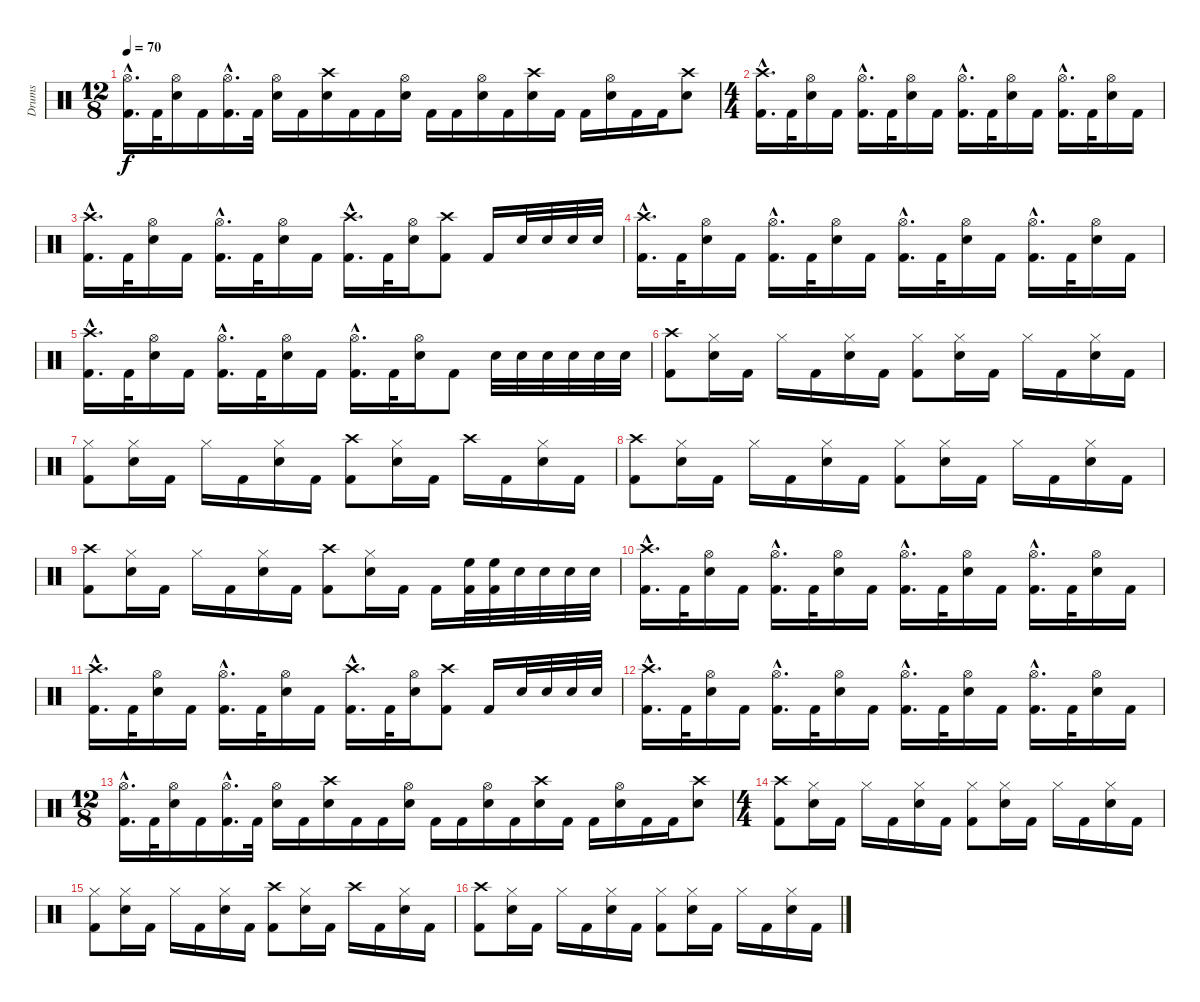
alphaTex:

\track ("Drums" "Drums") {instrument percussion}
\staff {score}
\articulation defaults
\ts (12 8)
\tempo 70
\clef neutral
\ks c
("Hi-Hat (open)"{hac} "Kick (hit) 2"{hac}).16{d dy f} "Kick (hit) 2".32 ("Hi-Hat (open)" "Snare (hit) 2").16 "Kick (hit) 2".16 ("Hi-Hat (open)"{hac} "Kick (hit) 2"{hac}).16{d} "Kick (hit) 2".32 ("Hi-Hat (open)" "Snare (hit) 2").16 "Kick (hit) 2".16 ("Crash high (hit)" "Snare (hit) 2").16 "Kick (hit) 2".16 "Kick (hit) 2".16 ("Hi-Hat (open)" "Snare (hit) 2").16 "Kick (hit) 2".16 "Kick (hit) 2".16 ("Hi-Hat (open)" "Snare (hit) 2").16 "Kick (hit) 2".16 ("Crash high (hit)" "Snare (hit) 2").16 "Kick (hit) 2".16 "Kick (hit) 2".16 ("Hi-Hat (open)" "Snare (hit) 2").16 "Kick (hit) 2".16 "Kick (hit) 2".16 ("Crash high (hit)" "Snare (hit) 2").8 |
\ts (4 4)
("Crash high (hit)"{hac} "Kick (hit) 2"{hac}).16{d} "Kick (hit) 2".32 ("Hi-Hat (open)" "Snare (hit) 2").16 "Kick (hit) 2".16 ("Hi-Hat (open)"{hac} "Kick (hit) 2"{hac}).16{d} "Kick (hit) 2".32 ("Hi-Hat (open)" "Snare (hit) 2").16 "Kick (hit) 2".16 ("Hi-Hat (open)"{hac} "Kick (hit) 2"{hac}).16{d} "Kick (hit) 2".32 ("Hi-Hat (open)" "Snare (hit) 2").16 "Kick (hit) 2".16 ("Hi-Hat (open)"{hac} "Kick (hit) 2"{hac}).16{d} "Kick (hit) 2".32 ("Hi-Hat (open)" "Snare (hit) 2").16 "Kick (hit) 2".16 |
("Crash high (hit)"{hac} "Kick (hit) 2"{hac}).16{d} "Kick (hit) 2".32 ("Hi-Hat (open)" "Snare (hit) 2").16 "Kick (hit) 2".16 ("Hi-Hat (open)"{hac} "Kick (hit) 2"{hac}).16{d} "Kick (hit) 2".32 ("Hi-Hat (open)" "Snare (hit) 2").16 "Kick (hit) 2".16 ("Crash high (hit)"{hac} "Kick (hit) 2"{hac}).16{d} "Kick (hit) 2".32 ("Hi-Hat (open)" "Snare (hit) 2").16 ("Crash high (hit)" "Kick (hit) 2").8 "Kick (hit) 2".16 "Snare (hit) 2".32 "Snare (hit) 2".32 "Snare (hit) 2".32 "Snare (hit) 2".32 |
("Crash high (hit)"{hac} "Kick (hit) 2"{hac}).16{d} "Kick (hit) 2".32 ("Hi-Hat (open)" "Snare (hit) 2").16 "Kick (hit) 2".16 ("Hi-Hat (open)"{hac} "Kick (hit) 2"{hac}).16{d} "Kick (hit) 2".32 ("Hi-Hat (open)" "Snare (hit) 2").16 "Kick (hit) 2".16 ("Hi-Hat (open)"{hac} "Kick (hit) 2"{hac}).16{d} "Kick (hit) 2".32 ("Hi-Hat (open)" "Snare (hit) 2").16 "Kick (hit) 2".16 ("Hi-Hat (open)"{hac} "Kick (hit) 2"{hac}).16{d} "Kick (hit) 2".32 ("Hi-Hat (open)" "Snare (hit) 2").16 "Kick (hit) 2".16 |
("Crash high (hit)"{hac} "Kick (hit) 2"{hac}).16{d} "Kick (hit) 2".32 ("Hi-Hat (open)" "Snare (hit) 2").16 "Kick (hit) 2".16 ("Hi-Hat (open)"{hac} "Kick (hit) 2"{hac}).16{d} "Kick (hit) 2".32 ("Hi-Hat (open)" "Snare (hit) 2").16 "Kick (hit) 2".16 ("Hi-Hat (open)"{hac} "Kick (hit) 2"{hac}).16{d} "Kick (hit) 2".32 ("Hi-Hat (open)" "Snare (hit) 2").16 "Kick (hit) 2".8 "Snare (hit) 2".32 "Snare (hit) 2".32 "Snare (hit) 2".32 "Snare (hit) 2".32 "Snare (hit) 2".32 "Snare (hit) 2".32 |
("Crash high (hit)" "Kick (hit) 2").8 ("Hi-Hat (closed)" "Snare (hit) 2").16 "Kick (hit) 2".16 "Hi-Hat (closed)".16 "Kick (hit) 2".16 ("Hi-Hat (closed)" "Snare (hit) 2").16 "Kick (hit) 2".16 ("Hi-Hat (closed)" "Kick (hit) 2").8 ("Hi-Hat (closed)" "Snare (hit) 2").16 "Kick (hit) 2".16 "Hi-Hat (closed)".16 "Kick (hit) 2".16 ("Hi-Hat (closed)" "Snare (hit) 2").16 "Kick (hit) 2".16 |
("Hi-Hat (closed)" "Kick (hit) 2").8 ("Hi-Hat (closed)" "Snare (hit) 2").16 "Kick (hit) 2".16 "Hi-Hat (closed)".16 "Kick (hit) 2".16 ("Hi-Hat (closed)" "Snare (hit) 2").16 "Kick (hit) 2".16 ("Crash high (hit)" "Kick (hit) 2").8 ("Hi-Hat (closed)" "Snare (hit) 2").16 "Kick (hit) 2".16 "Crash high (hit)".16 "Kick (hit) 2".16 ("Hi-Hat (closed)" "Snare (hit) 2").16 "Kick (hit) 2".16 |
("Crash high (hit)" "Kick (hit) 2").8 ("Hi-Hat (closed)" "Snare (hit) 2").16 "Kick (hit) 2".16 "Hi-Hat (closed)".16 "Kick (hit) 2".16 ("Hi-Hat (closed)" "Snare (hit) 2").16 "Kick (hit) 2".16 ("Hi-Hat (closed)" "Kick (hit) 2").8 ("Hi-Hat (closed)" "Snare (hit) 2").16 "Kick (hit) 2".16 "Hi-Hat (closed)".16 "Kick (hit) 2".16 ("Hi-Hat (closed)" "Snare (hit) 2").16 "Kick (hit) 2".16 |
("Crash high (hit)" "Kick (hit) 2").8 ("Hi-Hat (closed)" "Snare (hit) 2").16 "Kick (hit) 2".16 "Hi-Hat (closed)".16 "Kick (hit) 2".16 ("Hi-Hat (closed)" "Snare (hit) 2").16 "Kick (hit) 2".16 ("Crash high (hit)" "Kick (hit) 2").8 ("Hi-Hat (closed)" "Snare (hit) 2").16 "Kick (hit) 2".16 "Kick (hit) 2".16 ("High Floor Tom (hit)" "Kick (hit) 2").32 ("High Floor Tom (hit)" "Kick (hit) 2").32 "Snare (hit) 2".32 "Snare (hit) 2".32 "Snare (hit) 2".32 "Snare (hit) 2".32 |
("Crash high (hit)"{hac} "Kick (hit) 2"{hac}).16{d} "Kick (hit) 2".32 ("Hi-Hat (open)" "Snare (hit) 2").16 "Kick (hit) 2".16 ("Hi-Hat (open)"{hac} "Kick (hit) 2"{hac}).16{d} "Kick (hit) 2".32 ("Hi-Hat (open)" "Snare (hit) 2").16 "Kick (hit) 2".16 ("Hi-Hat (open)"{hac} "Kick (hit) 2"{hac}).16{d} "Kick (hit) 2".32 ("Hi-Hat (open)" "Snare (hit) 2").16 "Kick (hit) 2".16 ("Hi-Hat (open)"{hac} "Kick (hit) 2"{hac}).16{d} "Kick (hit) 2".32 ("Hi-Hat (open)" "Snare (hit) 2").16 "Kick (hit) 2".16 |
("Crash high (hit)"{hac} "Kick (hit) 2"{hac}).16{d} "Kick (hit) 2".32 ("Hi-Hat (open)" "Snare (hit) 2").16 "Kick (hit) 2".16 ("Hi-Hat (open)"{hac} "Kick (hit) 2"{hac}).16{d} "Kick (hit) 2".32 ("Hi-Hat (open)" "Snare (hit) 2").16 "Kick (hit) 2".16 ("Crash high (hit)"{hac} "Kick (hit) 2"{hac}).16{d} "Kick (hit) 2".32 ("Hi-Hat (open)" "Snare (hit) 2").16 ("Crash high (hit)" "Kick (hit) 2").8 "Kick (hit) 2".16 "Snare (hit) 2".32 "Snare (hit) 2".32 "Snare (hit) 2".32 "Snare (hit) 2".32 |
("Crash high (hit)"{hac} "Kick (hit) 2"{hac}).16{d} "Kick (hit) 2".32 ("Hi-Hat (open)" "Snare (hit) 2").16 "Kick (hit) 2".16 ("Hi-Hat (open)"{hac} "Kick (hit) 2"{hac}).16{d} "Kick (hit) 2".32 ("Hi-Hat (open)" "Snare (hit) 2").16 "Kick (hit) 2".16 ("Hi-Hat (open)"{hac} "Kick (hit) 2"{hac}).16{d} "Kick (hit) 2".32 ("Hi-Hat (open)" "Snare (hit) 2").16 "Kick (hit) 2".16 ("Hi-Hat (open)"{hac} "Kick (hit) 2"{hac}).16{d} "Kick (hit) 2".32 ("Hi-Hat (open)" "Snare (hit) 2").16 "Kick (hit) 2".16 |
\ts (12 8)
("Hi-Hat (open)"{hac} "Kick (hit) 2"{hac}).16{d} "Kick (hit) 2".32 ("Hi-Hat (open)" "Snare (hit) 2").16 "Kick (hit) 2".16 ("Hi-Hat (open)"{hac} "Kick (hit) 2"{hac}).16{d} "Kick (hit) 2".32 ("Hi-Hat (open)" "Snare (hit) 2").16 "Kick (hit) 2".16 ("Crash high (hit)" "Snare (hit) 2").16 "Kick (hit) 2".16 "Kick (hit) 2".16 ("Hi-Hat (open)" "Snare (hit) 2").16 "Kick (hit) 2".16 "Kick (hit) 2".16 ("Hi-Hat (open)" "Snare (hit) 2").16 "Kick (hit) 2".16 ("Crash high (hit)" "Snare (hit) 2").16 "Kick (hit) 2".16 "Kick (hit) 2".16 ("Hi-Hat (open)" "Snare (hit) 2").16 "Kick (hit) 2".16 "Kick (hit) 2".16 ("Crash high (hit)" "Snare (hit) 2").8 |
\ts (4 4)
("Crash high (hit)" "Kick (hit) 2").8 ("Hi-Hat (closed)" "Snare (hit) 2").16 "Kick (hit) 2".16 "Hi-Hat (closed)".16 "Kick (hit) 2".16 ("Hi-Hat (closed)" "Snare (hit) 2").16 "Kick (hit) 2".16 ("Hi-Hat (closed)" "Kick (hit) 2").8 ("Hi-Hat (closed)" "Snare (hit) 2").16 "Kick (hit) 2".16 "Hi-Hat (closed)".16 "Kick (hit) 2".16 ("Hi-Hat (closed)" "Snare (hit) 2").16 "Kick (hit) 2".16 |
("Hi-Hat (closed)" "Kick (hit) 2").8 ("Hi-Hat (closed)" "Snare (hit) 2").16 "Kick (hit) 2".16 "Hi-Hat (closed)".16 "Kick (hit) 2".16 ("Hi-Hat (closed)" "Snare (hit) 2").16 "Kick (hit) 2".16 ("Crash high (hit)" "Kick (hit) 2").8 ("Hi-Hat (closed)" "Snare (hit) 2").16 "Kick (hit) 2".16 "Crash high (hit)".16 "Kick (hit) 2".16 ("Hi-Hat (closed)" "Snare (hit) 2").16 "Kick (hit) 2".16 |
("Crash high (hit)" "Kick (hit) 2").8 ("Hi-Hat (closed)" "Snare (hit) 2").16 "Kick (hit) 2".16 "Hi-Hat (closed)".16 "Kick (hit) 2".16 ("Hi-Hat (closed)" "Snare (hit) 2").16 "Kick (hit) 2".16 ("Hi-Hat (closed)" "Kick (hit) 2").8 ("Hi-Hat (closed)" "Snare (hit) 2").16 "Kick (hit) 2".16 "Hi-Hat (closed)".16 "Kick (hit) 2".16 ("Hi-Hat (closed)" "Snare (hit) 2").16 "Kick (hit) 2".16
